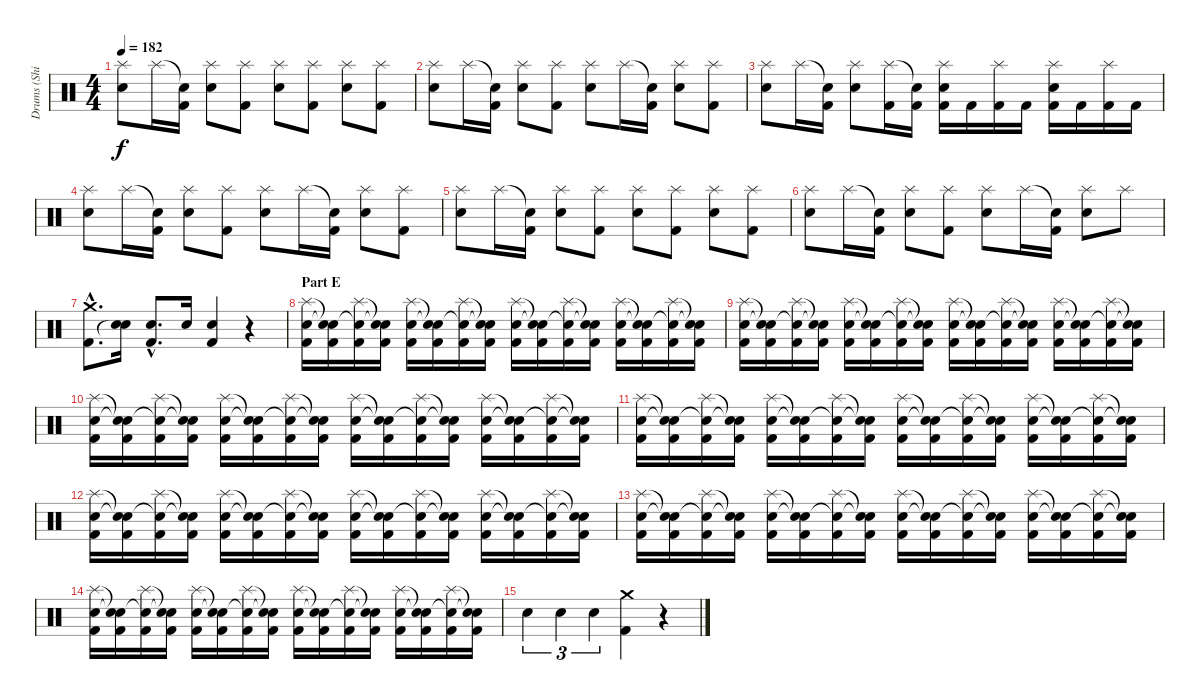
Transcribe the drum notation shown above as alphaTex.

\track ("Drums (Shinya)" "Drums (Shi") {instrument percussion}
\staff {score}
\articulation defaults
\ts (4 4)
\tempo 182
\clef neutral
\ks c
("Splash (hit)" "Electric Snare (hit)").8{dy f} "Splash (hit)".16 ("Snare (hit)"{t} "Kick (hit) 2").16 ("Splash (hit)" "Electric Snare (hit)").8 ("Splash (hit)" "Kick (hit) 2").8 ("Splash (hit)" "Electric Snare (hit)").8 ("Splash (hit)" "Kick (hit) 2").8 ("Splash (hit)" "Electric Snare (hit)").8 ("Splash (hit)" "Kick (hit) 2").8 |
("Splash (hit)" "Electric Snare (hit)").8 "Splash (hit)".16 ("Snare (hit)"{t} "Kick (hit) 2").16 ("Splash (hit)" "Electric Snare (hit)").8 ("Splash (hit)" "Kick (hit) 2").8 ("Splash (hit)" "Electric Snare (hit)").8 "Splash (hit)".16 ("Snare (hit)"{t} "Kick (hit) 2").16 ("Splash (hit)" "Electric Snare (hit)").8 ("Splash (hit)" "Kick (hit) 2").8 |
("Splash (hit)" "Electric Snare (hit)").8 "Splash (hit)".16 ("Snare (hit)"{t} "Kick (hit) 2").16 ("Splash (hit)" "Electric Snare (hit)").8 ("Splash (hit)" "Kick (hit) 2").16 ("Snare (hit)"{t} "Kick (hit) 2").16 ("Splash (hit)" "Electric Snare (hit)" "Kick (hit) 2").16 "Kick (hit) 2".16 ("Splash (hit)" "Kick (hit) 2").16 "Kick (hit) 2".16 ("Splash (hit)" "Electric Snare (hit)" "Kick (hit) 2").16 "Kick (hit) 2".16 ("Splash (hit)" "Kick (hit) 2").16 "Kick (hit) 2".16 |
("Splash (hit)" "Electric Snare (hit)").8 "Splash (hit)".16 ("Snare (hit)"{t} "Kick (hit) 2").16 ("Splash (hit)" "Electric Snare (hit)").8 ("Splash (hit)" "Kick (hit) 2").8 ("Splash (hit)" "Electric Snare (hit)").8 "Splash (hit)".16 ("Snare (hit)"{t} "Kick (hit) 2").16 ("Splash (hit)" "Electric Snare (hit)").8 ("Splash (hit)" "Kick (hit) 2").8 |
("Splash (hit)" "Electric Snare (hit)").8 "Splash (hit)".16 ("Snare (hit)"{t} "Kick (hit) 2").16 ("Splash (hit)" "Electric Snare (hit)").8 ("Splash (hit)" "Kick (hit) 2").8 ("Splash (hit)" "Electric Snare (hit)").8 ("Splash (hit)" "Kick (hit) 2").8 ("Splash (hit)" "Electric Snare (hit)").8 ("Splash (hit)" "Kick (hit) 2").8 |
("Splash (hit)" "Electric Snare (hit)").8 "Splash (hit)".16 ("Snare (hit)"{t} "Kick (hit) 2").16 ("Splash (hit)" "Electric Snare (hit)").8 ("Splash (hit)" "Kick (hit) 2").8 ("Splash (hit)" "Electric Snare (hit)").8 "Splash (hit)".16 ("Snare (hit)"{t} "Kick (hit) 2").16 ("Splash (hit)" "Electric Snare (hit)").8 "Splash (hit)".8 |
("Crash medium (hit)"{hac} "Kick (hit) 2"{hac}).8{d} ("Electric Snare (hit)" "Snare (hit)"{t}).16 ("Electric Snare (hit)"{hac} "Kick (hit) 2"{hac}).8{d} "Electric Snare (hit)".16 ("Electric Snare (hit)" "Kick (hit) 2").4 r.4 |
\section ("" "Part E")
("Splash (hit)" "Electric Snare (hit)" "Kick (hit) 2").16 ("Snare (hit)"{t} "Snare (hit)"{t} "Kick (hit) 2").16 ("Splash (hit)" "Snare (hit)"{t} "Kick (hit) 2").16 ("Snare (hit)"{t} "Snare (hit)"{t} "Kick (hit) 2").16 ("Splash (hit)" "Electric Snare (hit)" "Kick (hit) 2").16 ("Snare (hit)"{t} "Snare (hit)"{t} "Kick (hit) 2").16 ("Splash (hit)" "Snare (hit)"{t} "Kick (hit) 2").16 ("Snare (hit)"{t} "Snare (hit)"{t} "Kick (hit) 2").16 ("Splash (hit)" "Electric Snare (hit)" "Kick (hit) 2").16 ("Snare (hit)"{t} "Snare (hit)"{t} "Kick (hit) 2").16 ("Splash (hit)" "Snare (hit)"{t} "Kick (hit) 2").16 ("Snare (hit)"{t} "Snare (hit)"{t} "Kick (hit) 2").16 ("Splash (hit)" "Electric Snare (hit)" "Kick (hit) 2").16 ("Snare (hit)"{t} "Snare (hit)"{t} "Kick (hit) 2").16 ("Splash (hit)" "Snare (hit)"{t} "Kick (hit) 2").16 ("Snare (hit)"{t} "Snare (hit)"{t} "Kick (hit) 2").16 |
("Splash (hit)" "Electric Snare (hit)" "Kick (hit) 2").16 ("Snare (hit)"{t} "Snare (hit)"{t} "Kick (hit) 2").16 ("Splash (hit)" "Snare (hit)"{t} "Kick (hit) 2").16 ("Snare (hit)"{t} "Snare (hit)"{t} "Kick (hit) 2").16 ("Splash (hit)" "Electric Snare (hit)" "Kick (hit) 2").16 ("Snare (hit)"{t} "Snare (hit)"{t} "Kick (hit) 2").16 ("Splash (hit)" "Snare (hit)"{t} "Kick (hit) 2").16 ("Snare (hit)"{t} "Snare (hit)"{t} "Kick (hit) 2").16 ("Splash (hit)" "Electric Snare (hit)" "Kick (hit) 2").16 ("Snare (hit)"{t} "Snare (hit)"{t} "Kick (hit) 2").16 ("Splash (hit)" "Snare (hit)"{t} "Kick (hit) 2").16 ("Snare (hit)"{t} "Snare (hit)"{t} "Kick (hit) 2").16 ("Splash (hit)" "Electric Snare (hit)" "Kick (hit) 2").16 ("Snare (hit)"{t} "Snare (hit)"{t} "Kick (hit) 2").16 ("Splash (hit)" "Snare (hit)"{t} "Kick (hit) 2").16 ("Snare (hit)"{t} "Snare (hit)"{t} "Kick (hit) 2").16 |
("Splash (hit)" "Electric Snare (hit)" "Kick (hit) 2").16 ("Snare (hit)"{t} "Snare (hit)"{t} "Kick (hit) 2").16 ("Splash (hit)" "Snare (hit)"{t} "Kick (hit) 2").16 ("Snare (hit)"{t} "Snare (hit)"{t} "Kick (hit) 2").16 ("Splash (hit)" "Electric Snare (hit)" "Kick (hit) 2").16 ("Snare (hit)"{t} "Snare (hit)"{t} "Kick (hit) 2").16 ("Splash (hit)" "Snare (hit)"{t} "Kick (hit) 2").16 ("Snare (hit)"{t} "Snare (hit)"{t} "Kick (hit) 2").16 ("Splash (hit)" "Electric Snare (hit)" "Kick (hit) 2").16 ("Snare (hit)"{t} "Snare (hit)"{t} "Kick (hit) 2").16 ("Splash (hit)" "Snare (hit)"{t} "Kick (hit) 2").16 ("Snare (hit)"{t} "Snare (hit)"{t} "Kick (hit) 2").16 ("Splash (hit)" "Electric Snare (hit)" "Kick (hit) 2").16 ("Snare (hit)"{t} "Snare (hit)"{t} "Kick (hit) 2").16 ("Splash (hit)" "Snare (hit)"{t} "Kick (hit) 2").16 ("Snare (hit)"{t} "Snare (hit)"{t} "Kick (hit) 2").16 |
("Splash (hit)" "Electric Snare (hit)" "Kick (hit) 2").16 ("Snare (hit)"{t} "Snare (hit)"{t} "Kick (hit) 2").16 ("Splash (hit)" "Snare (hit)"{t} "Kick (hit) 2").16 ("Snare (hit)"{t} "Snare (hit)"{t} "Kick (hit) 2").16 ("Splash (hit)" "Electric Snare (hit)" "Kick (hit) 2").16 ("Snare (hit)"{t} "Snare (hit)"{t} "Kick (hit) 2").16 ("Splash (hit)" "Snare (hit)"{t} "Kick (hit) 2").16 ("Snare (hit)"{t} "Snare (hit)"{t} "Kick (hit) 2").16 ("Splash (hit)" "Electric Snare (hit)" "Kick (hit) 2").16 ("Snare (hit)"{t} "Snare (hit)"{t} "Kick (hit) 2").16 ("Splash (hit)" "Snare (hit)"{t} "Kick (hit) 2").16 ("Snare (hit)"{t} "Snare (hit)"{t} "Kick (hit) 2").16 ("Splash (hit)" "Electric Snare (hit)" "Kick (hit) 2").16 ("Snare (hit)"{t} "Snare (hit)"{t} "Kick (hit) 2").16 ("Splash (hit)" "Snare (hit)"{t} "Kick (hit) 2").16 ("Snare (hit)"{t} "Snare (hit)"{t} "Kick (hit) 2").16 |
("Splash (hit)" "Electric Snare (hit)" "Kick (hit) 2").16 ("Snare (hit)"{t} "Snare (hit)"{t} "Kick (hit) 2").16 ("Splash (hit)" "Snare (hit)"{t} "Kick (hit) 2").16 ("Snare (hit)"{t} "Snare (hit)"{t} "Kick (hit) 2").16 ("Splash (hit)" "Electric Snare (hit)" "Kick (hit) 2").16 ("Snare (hit)"{t} "Snare (hit)"{t} "Kick (hit) 2").16 ("Splash (hit)" "Snare (hit)"{t} "Kick (hit) 2").16 ("Snare (hit)"{t} "Snare (hit)"{t} "Kick (hit) 2").16 ("Splash (hit)" "Electric Snare (hit)" "Kick (hit) 2").16 ("Snare (hit)"{t} "Snare (hit)"{t} "Kick (hit) 2").16 ("Splash (hit)" "Snare (hit)"{t} "Kick (hit) 2").16 ("Snare (hit)"{t} "Snare (hit)"{t} "Kick (hit) 2").16 ("Splash (hit)" "Electric Snare (hit)" "Kick (hit) 2").16 ("Snare (hit)"{t} "Snare (hit)"{t} "Kick (hit) 2").16 ("Splash (hit)" "Snare (hit)"{t} "Kick (hit) 2").16 ("Snare (hit)"{t} "Snare (hit)"{t} "Kick (hit) 2").16 |
("Splash (hit)" "Electric Snare (hit)" "Kick (hit) 2").16 ("Snare (hit)"{t} "Snare (hit)"{t} "Kick (hit) 2").16 ("Splash (hit)" "Snare (hit)"{t} "Kick (hit) 2").16 ("Snare (hit)"{t} "Snare (hit)"{t} "Kick (hit) 2").16 ("Splash (hit)" "Electric Snare (hit)" "Kick (hit) 2").16 ("Snare (hit)"{t} "Snare (hit)"{t} "Kick (hit) 2").16 ("Splash (hit)" "Snare (hit)"{t} "Kick (hit) 2").16 ("Snare (hit)"{t} "Snare (hit)"{t} "Kick (hit) 2").16 ("Splash (hit)" "Electric Snare (hit)" "Kick (hit) 2").16 ("Snare (hit)"{t} "Snare (hit)"{t} "Kick (hit) 2").16 ("Splash (hit)" "Snare (hit)"{t} "Kick (hit) 2").16 ("Snare (hit)"{t} "Snare (hit)"{t} "Kick (hit) 2").16 ("Splash (hit)" "Electric Snare (hit)" "Kick (hit) 2").16 ("Snare (hit)"{t} "Snare (hit)"{t} "Kick (hit) 2").16 ("Splash (hit)" "Snare (hit)"{t} "Kick (hit) 2").16 ("Snare (hit)"{t} "Snare (hit)"{t} "Kick (hit) 2").16 |
("Splash (hit)" "Electric Snare (hit)" "Kick (hit) 2").16 ("Snare (hit)"{t} "Snare (hit)"{t} "Kick (hit) 2").16 ("Splash (hit)" "Snare (hit)"{t} "Kick (hit) 2").16 ("Snare (hit)"{t} "Snare (hit)"{t} "Kick (hit) 2").16 ("Splash (hit)" "Electric Snare (hit)" "Kick (hit) 2").16 ("Snare (hit)"{t} "Snare (hit)"{t} "Kick (hit) 2").16 ("Splash (hit)" "Snare (hit)"{t} "Kick (hit) 2").16 ("Snare (hit)"{t} "Snare (hit)"{t} "Kick (hit) 2").16 ("Splash (hit)" "Electric Snare (hit)" "Kick (hit) 2").16 ("Snare (hit)"{t} "Snare (hit)"{t} "Kick (hit) 2").16 ("Splash (hit)" "Snare (hit)"{t} "Kick (hit) 2").16 ("Snare (hit)"{t} "Snare (hit)"{t} "Kick (hit) 2").16 ("Splash (hit)" "Electric Snare (hit)" "Kick (hit) 2").16 ("Snare (hit)"{t} "Snare (hit)"{t} "Kick (hit) 2").16 ("Splash (hit)" "Snare (hit)"{t} "Kick (hit) 2").16 ("Snare (hit)"{t} "Snare (hit)"{t} "Kick (hit) 2").16 |
"Electric Snare (hit)".4{tu (3 2)} "Electric Snare (hit)".4{tu (3 2)} "Electric Snare (hit)".4{tu (3 2)} ("Crash medium (hit)" "Kick (hit) 2").4 r.4
